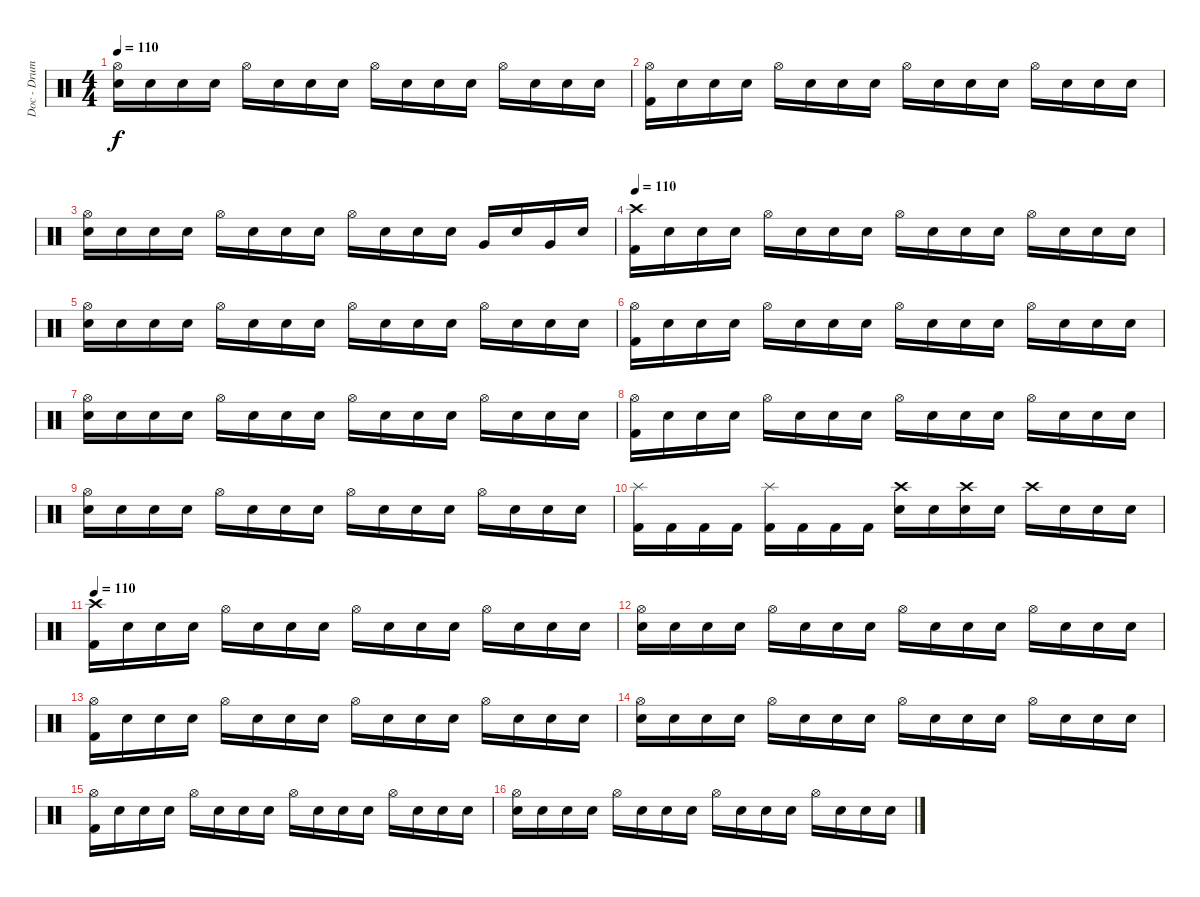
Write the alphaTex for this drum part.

\track ("Doc - Drums" "Doc - Drum") {instrument percussion}
\staff {score}
\articulation defaults
\ts (4 4)
\tempo 110
\clef neutral
\ks c
("Hi-Hat (open)" "Electric Snare (hit)").16{dy f} "Snare (hit)".16 "Snare (hit)".16 "Snare (hit)".16 "Hi-Hat (open)".16 "Snare (hit)".16 "Snare (hit)".16 "Snare (hit)".16 "Hi-Hat (open)".16 "Snare (hit)".16 "Snare (hit)".16 "Snare (hit)".16 "Hi-Hat (open)".16 "Snare (hit)".16 "Snare (hit)".16 "Snare (hit)".16 |
("Hi-Hat (open)" "Kick (hit) 2").16 "Snare (hit)".16 "Snare (hit)".16 "Snare (hit)".16 "Hi-Hat (open)".16 "Snare (hit)".16 "Snare (hit)".16 "Snare (hit)".16 "Hi-Hat (open)".16 "Snare (hit)".16 "Snare (hit)".16 "Snare (hit)".16 "Hi-Hat (open)".16 "Snare (hit)".16 "Snare (hit)".16 "Snare (hit)".16 |
("Hi-Hat (open)" "Electric Snare (hit)").16 "Snare (hit)".16 "Snare (hit)".16 "Snare (hit)".16 "Hi-Hat (open)".16 "Snare (hit)".16 "Snare (hit)".16 "Snare (hit)".16 "Hi-Hat (open)".16 "Snare (hit)".16 "Snare (hit)".16 "Snare (hit)".16 "Very Low Tom (hit)".16 "Snare (hit)".16 "Very Low Tom (hit)".16 "Snare (hit)".16 |
\tempo 110
("Crash high (hit)" "Kick (hit) 2").16{volume 16 balance 8} "Snare (hit)".16 "Snare (hit)".16 "Snare (hit)".16 "Hi-Hat (open)".16 "Snare (hit)".16 "Snare (hit)".16 "Snare (hit)".16 "Hi-Hat (open)".16 "Snare (hit)".16 "Snare (hit)".16 "Snare (hit)".16 "Hi-Hat (open)".16 "Snare (hit)".16 "Snare (hit)".16 "Snare (hit)".16 |
("Hi-Hat (open)" "Electric Snare (hit)").16 "Snare (hit)".16 "Snare (hit)".16 "Snare (hit)".16 "Hi-Hat (open)".16 "Snare (hit)".16 "Snare (hit)".16 "Snare (hit)".16 "Hi-Hat (open)".16 "Snare (hit)".16 "Snare (hit)".16 "Snare (hit)".16 "Hi-Hat (open)".16 "Snare (hit)".16 "Snare (hit)".16 "Snare (hit)".16 |
("Hi-Hat (open)" "Kick (hit) 2").16 "Snare (hit)".16 "Snare (hit)".16 "Snare (hit)".16 "Hi-Hat (open)".16 "Snare (hit)".16 "Snare (hit)".16 "Snare (hit)".16 "Hi-Hat (open)".16 "Snare (hit)".16 "Snare (hit)".16 "Snare (hit)".16 "Hi-Hat (open)".16 "Snare (hit)".16 "Snare (hit)".16 "Snare (hit)".16 |
("Hi-Hat (open)" "Electric Snare (hit)").16 "Snare (hit)".16 "Snare (hit)".16 "Snare (hit)".16 "Hi-Hat (open)".16 "Snare (hit)".16 "Snare (hit)".16 "Snare (hit)".16 "Hi-Hat (open)".16 "Snare (hit)".16 "Snare (hit)".16 "Snare (hit)".16 "Hi-Hat (open)".16 "Snare (hit)".16 "Snare (hit)".16 "Snare (hit)".16 |
("Hi-Hat (open)" "Kick (hit) 2").16 "Snare (hit)".16 "Snare (hit)".16 "Snare (hit)".16 "Hi-Hat (open)".16 "Snare (hit)".16 "Snare (hit)".16 "Snare (hit)".16 "Hi-Hat (open)".16 "Snare (hit)".16 "Snare (hit)".16 "Snare (hit)".16 "Hi-Hat (open)".16 "Snare (hit)".16 "Snare (hit)".16 "Snare (hit)".16 |
("Hi-Hat (open)" "Electric Snare (hit)").16 "Snare (hit)".16 "Snare (hit)".16 "Snare (hit)".16 "Hi-Hat (open)".16 "Snare (hit)".16 "Snare (hit)".16 "Snare (hit)".16 "Hi-Hat (open)".16 "Snare (hit)".16 "Snare (hit)".16 "Snare (hit)".16 "Hi-Hat (open)".16 "Snare (hit)".16 "Snare (hit)".16 "Snare (hit)".16 |
("Splash (hit)" "Kick (hit) 2").16 "Kick (hit) 2".16 "Kick (hit) 2".16 "Kick (hit) 2".16 ("Splash (hit)" "Kick (hit) 2").16 "Kick (hit) 2".16 "Kick (hit) 2".16 "Kick (hit) 2".16 ("Crash high (hit)" "Electric Snare (hit)").16 "Snare (hit)".16 ("Crash high (hit)" "Electric Snare (hit)").16 "Snare (hit)".16 "Crash high (hit)".16 "Snare (hit)".16 "Snare (hit)".16 "Snare (hit)".16 |
\tempo 110
("Crash high (hit)" "Kick (hit) 2").16{volume 16 balance 8} "Snare (hit)".16 "Snare (hit)".16 "Snare (hit)".16 "Hi-Hat (open)".16 "Snare (hit)".16 "Snare (hit)".16 "Snare (hit)".16 "Hi-Hat (open)".16 "Snare (hit)".16 "Snare (hit)".16 "Snare (hit)".16 "Hi-Hat (open)".16 "Snare (hit)".16 "Snare (hit)".16 "Snare (hit)".16 |
("Hi-Hat (open)" "Electric Snare (hit)").16 "Snare (hit)".16 "Snare (hit)".16 "Snare (hit)".16 "Hi-Hat (open)".16 "Snare (hit)".16 "Snare (hit)".16 "Snare (hit)".16 "Hi-Hat (open)".16 "Snare (hit)".16 "Snare (hit)".16 "Snare (hit)".16 "Hi-Hat (open)".16 "Snare (hit)".16 "Snare (hit)".16 "Snare (hit)".16 |
("Hi-Hat (open)" "Kick (hit) 2").16 "Snare (hit)".16 "Snare (hit)".16 "Snare (hit)".16 "Hi-Hat (open)".16 "Snare (hit)".16 "Snare (hit)".16 "Snare (hit)".16 "Hi-Hat (open)".16 "Snare (hit)".16 "Snare (hit)".16 "Snare (hit)".16 "Hi-Hat (open)".16 "Snare (hit)".16 "Snare (hit)".16 "Snare (hit)".16 |
("Hi-Hat (open)" "Electric Snare (hit)").16 "Snare (hit)".16 "Snare (hit)".16 "Snare (hit)".16 "Hi-Hat (open)".16 "Snare (hit)".16 "Snare (hit)".16 "Snare (hit)".16 "Hi-Hat (open)".16 "Snare (hit)".16 "Snare (hit)".16 "Snare (hit)".16 "Hi-Hat (open)".16 "Snare (hit)".16 "Snare (hit)".16 "Snare (hit)".16 |
("Hi-Hat (open)" "Kick (hit) 2").16 "Snare (hit)".16 "Snare (hit)".16 "Snare (hit)".16 "Hi-Hat (open)".16 "Snare (hit)".16 "Snare (hit)".16 "Snare (hit)".16 "Hi-Hat (open)".16 "Snare (hit)".16 "Snare (hit)".16 "Snare (hit)".16 "Hi-Hat (open)".16 "Snare (hit)".16 "Snare (hit)".16 "Snare (hit)".16 |
("Hi-Hat (open)" "Electric Snare (hit)").16 "Snare (hit)".16 "Snare (hit)".16 "Snare (hit)".16 "Hi-Hat (open)".16 "Snare (hit)".16 "Snare (hit)".16 "Snare (hit)".16 "Hi-Hat (open)".16 "Snare (hit)".16 "Snare (hit)".16 "Snare (hit)".16 "Hi-Hat (open)".16 "Snare (hit)".16 "Snare (hit)".16 "Snare (hit)".16
